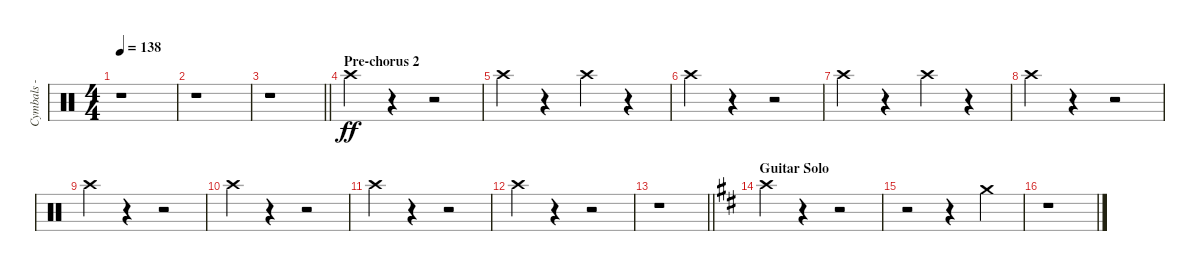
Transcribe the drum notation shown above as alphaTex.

\track ("Cymbals - crash" "Cymbals - ") {instrument percussion}
\staff {score}
\articulation defaults
\ts (4 4)
\tempo 138
\clef neutral
\ks c
r.1{dy ff} |
r.1 |
\barLineRight lightlight
r.1 |
\section ("" "Pre-chorus 2")
"Crash high (hit)".4 r.4 r.2 |
"Crash high (hit)".4 r.4 "Crash high (hit)".4 r.4 |
"Crash high (hit)".4 r.4 r.2 |
"Crash high (hit)".4 r.4 "Crash high (hit)".4 r.4 |
"Crash high (hit)".4 r.4 r.2 |
"Crash high (hit)".4 r.4 r.2 |
"Crash high (hit)".4 r.4 r.2 |
"Crash high (hit)".4 r.4 r.2 |
"Crash high (hit)".4 r.4 r.2 |
\barLineRight lightlight
r.1 |
\section ("" "Guitar Solo")
\ks d "Crash high (hit)".4
r.4 r.2 |
r.2 r.4 "Crash medium (hit)".4 |
r.1
